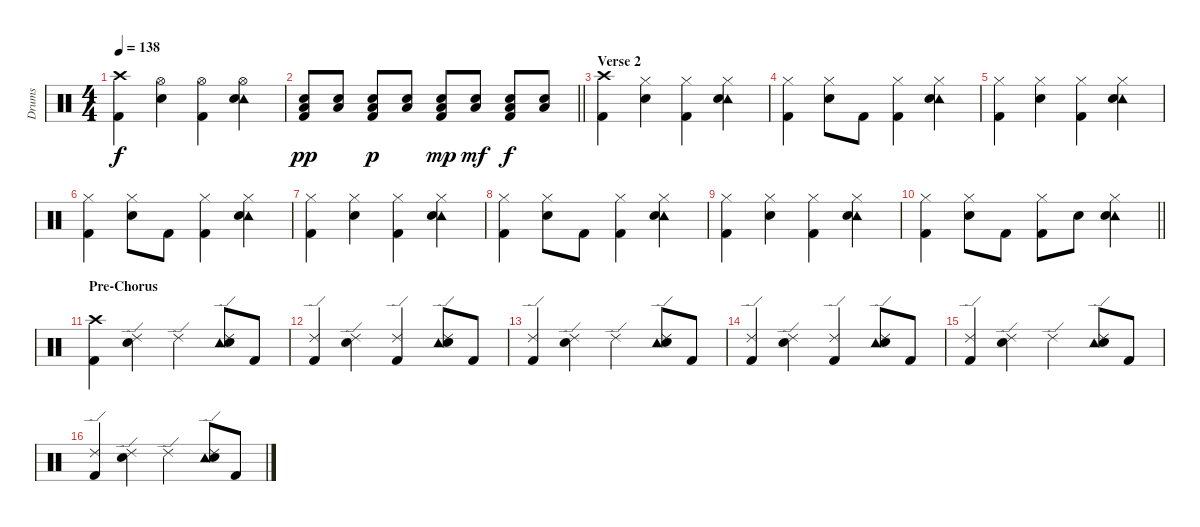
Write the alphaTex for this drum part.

\track ("Drums" "Drums") {instrument percussion}
\staff {score}
\articulation defaults
\ts (4 4)
\tempo 138
\clef neutral
\ks c
("Crash high (hit)" "Kick (hit) 2").4{dy f} ("Hi-Hat (open)" "Snare (hit) 2").4 ("Hi-Hat (open)" "Kick (hit) 2").4 ("Tambourine (hit)" "Hi-Hat (open)" "Snare (hit) 2").4 |
\barLineRight lightlight
("Snare (hit) 2" "Low Tom (hit)" "Kick (hit) 2").8{dy pp} ("Snare (hit) 2" "Low Tom (hit)").8 ("Snare (hit) 2" "Low Tom (hit)" "Kick (hit) 2").8{dy p} ("Snare (hit) 2" "Low Tom (hit)").8 ("Snare (hit) 2" "Low Tom (hit)" "Kick (hit) 2").8{dy mp} ("Snare (hit) 2" "Low Tom (hit)").8{dy mf} ("Snare (hit) 2" "Low Tom (hit)" "Kick (hit) 2").8{dy f} ("Snare (hit) 2" "Low Tom (hit)").8 |
\section ("" "Verse 2")
("Crash high (hit)" "Kick (hit) 2").4 ("Hi-Hat (closed)" "Snare (hit) 2").4 ("Hi-Hat (closed)" "Kick (hit) 2").4 ("Tambourine (hit)" "Hi-Hat (closed)" "Snare (hit) 2").4 |
("Hi-Hat (closed)" "Kick (hit) 2").4 ("Hi-Hat (closed)" "Snare (hit) 2").8 "Kick (hit) 2".8 ("Hi-Hat (closed)" "Kick (hit) 2").4 ("Tambourine (hit)" "Hi-Hat (closed)" "Snare (hit) 2").4 |
("Hi-Hat (closed)" "Kick (hit) 2").4 ("Hi-Hat (closed)" "Snare (hit) 2").4 ("Hi-Hat (closed)" "Kick (hit) 2").4 ("Tambourine (hit)" "Hi-Hat (closed)" "Snare (hit) 2").4 |
("Hi-Hat (closed)" "Kick (hit) 2").4 ("Hi-Hat (closed)" "Snare (hit) 2").8 "Kick (hit) 2".8 ("Hi-Hat (closed)" "Kick (hit) 2").4 ("Tambourine (hit)" "Hi-Hat (closed)" "Snare (hit) 2").4 |
("Hi-Hat (closed)" "Kick (hit) 2").4 ("Hi-Hat (closed)" "Snare (hit) 2").4 ("Hi-Hat (closed)" "Kick (hit) 2").4 ("Tambourine (hit)" "Hi-Hat (closed)" "Snare (hit) 2").4 |
("Hi-Hat (closed)" "Kick (hit) 2").4 ("Hi-Hat (closed)" "Snare (hit) 2").8 "Kick (hit) 2".8 ("Hi-Hat (closed)" "Kick (hit) 2").4 ("Tambourine (hit)" "Hi-Hat (closed)" "Snare (hit) 2").4 |
("Hi-Hat (closed)" "Kick (hit) 2").4 ("Hi-Hat (closed)" "Snare (hit) 2").4 ("Hi-Hat (closed)" "Kick (hit) 2").4 ("Tambourine (hit)" "Hi-Hat (closed)" "Snare (hit) 2").4 |
\barLineRight lightlight
("Hi-Hat (closed)" "Kick (hit) 2").4 ("Hi-Hat (closed)" "Snare (hit) 2").8 "Kick (hit) 2".8 ("Hi-Hat (closed)" "Kick (hit) 2").8 "Snare (hit) 2".8 ("Tambourine (hit)" "Hi-Hat (closed)" "Snare (hit) 2").4 |
\section ("" "Pre-Chorus")
("Crash high (hit)" "Kick (hit) 2").4 ("Ride (edge) 2" "Snare (hit) 2").4 "Ride (edge) 2".4 ("Tambourine (hit)" "Ride (edge) 2" "Snare (hit) 2").8 "Kick (hit) 2".8 |
("Ride (edge) 2" "Kick (hit) 2").4 ("Ride (edge) 2" "Snare (hit) 2").4 ("Ride (edge) 2" "Kick (hit) 2").4 ("Tambourine (hit)" "Ride (edge) 2" "Snare (hit) 2").8 "Kick (hit) 2".8 |
("Ride (edge) 2" "Kick (hit) 2").4 ("Ride (edge) 2" "Snare (hit) 2").4 "Ride (edge) 2".4 ("Tambourine (hit)" "Ride (edge) 2" "Snare (hit) 2").8 "Kick (hit) 2".8 |
("Ride (edge) 2" "Kick (hit) 2").4 ("Ride (edge) 2" "Snare (hit) 2").4 ("Ride (edge) 2" "Kick (hit) 2").4 ("Tambourine (hit)" "Ride (edge) 2" "Snare (hit) 2").8 "Kick (hit) 2".8 |
("Ride (edge) 2" "Kick (hit) 2").4 ("Ride (edge) 2" "Snare (hit) 2").4 "Ride (edge) 2".4 ("Tambourine (hit)" "Ride (edge) 2" "Snare (hit) 2").8 "Kick (hit) 2".8 |
("Ride (edge) 2" "Kick (hit) 2").4 ("Ride (edge) 2" "Snare (hit) 2").4 "Ride (edge) 2".4 ("Tambourine (hit)" "Ride (edge) 2" "Snare (hit) 2").8 "Kick (hit) 2".8
